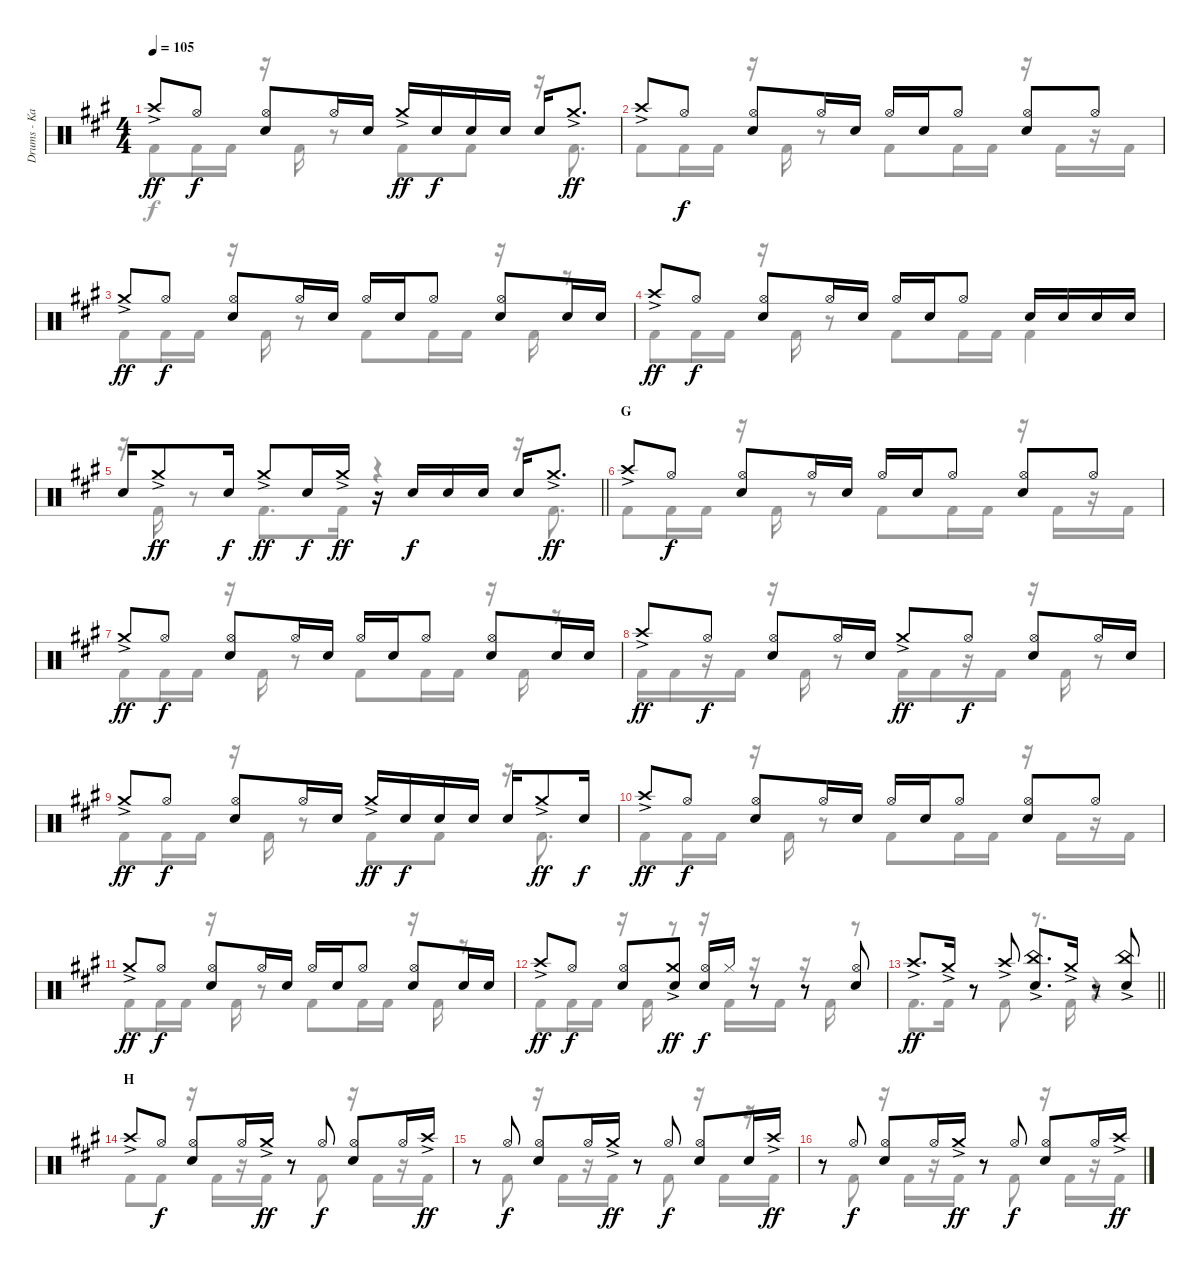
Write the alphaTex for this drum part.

\track ("Drums - Kai" "Drums - Ka") {instrument percussion}
\staff {score}
\articulation defaults
\voice
\ts (4 4)
\tempo 105
\clef neutral
\ks a "Crash high (hit)"{ac}.8{dy ff} "Hi-Hat (open)".8{dy f}
("Hi-Hat (open)" "Electric Snare (hit)").8 "Hi-Hat (open)".16 "Electric Snare (hit)".16 "Crash medium (hit)"{ac}.16{dy ff} "Electric Snare (hit)".16{dy f} "Electric Snare (hit)".16 "Electric Snare (hit)".16 "Electric Snare (hit)".16 "Crash medium (hit)"{ac}.8{d dy ff} |
"Crash high (hit)"{ac}.8 "Hi-Hat (open)".8{dy f} ("Hi-Hat (open)" "Electric Snare (hit)").8 "Hi-Hat (open)".16 "Electric Snare (hit)".16 "Hi-Hat (open)".16 "Electric Snare (hit)".16 "Hi-Hat (open)".8 ("Hi-Hat (open)" "Electric Snare (hit)").8 "Hi-Hat (open)".8 |
"Crash medium (hit)"{ac}.8{dy ff} "Hi-Hat (open)".8{dy f} ("Hi-Hat (open)" "Electric Snare (hit)").8 "Hi-Hat (open)".16 "Electric Snare (hit)".16 "Hi-Hat (open)".16 "Electric Snare (hit)".16 "Hi-Hat (open)".8 ("Hi-Hat (open)" "Electric Snare (hit)").8 "Electric Snare (hit)".16 "Electric Snare (hit)".16 |
"Crash high (hit)"{ac}.8{dy ff} "Hi-Hat (open)".8{dy f} ("Hi-Hat (open)" "Electric Snare (hit)").8 "Hi-Hat (open)".16 "Electric Snare (hit)".16 "Hi-Hat (open)".16 "Electric Snare (hit)".16 "Hi-Hat (open)".8 "Electric Snare (hit)".16 "Electric Snare (hit)".16 "Electric Snare (hit)".16 "Electric Snare (hit)".16 |
\barLineRight lightlight "Electric Snare (hit)".16 "Crash medium (hit)"{ac}.8{dy ff} "Electric Snare (hit)".16{dy f} "Crash medium (hit)"{ac}.8{dy ff} "Electric Snare (hit)".16{dy f} "Crash medium (hit)"{ac}.16{dy ff}
r.16 "Electric Snare (hit)".16{dy f} "Electric Snare (hit)".16 "Electric Snare (hit)".16 "Electric Snare (hit)".16 "Crash medium (hit)"{ac}.8{d dy ff} |
\section ("" "G")
"Crash high (hit)"{ac}.8 "Hi-Hat (open)".8{dy f} ("Hi-Hat (open)" "Electric Snare (hit)").8 "Hi-Hat (open)".16 "Electric Snare (hit)".16 "Hi-Hat (open)".16 "Electric Snare (hit)".16 "Hi-Hat (open)".8 ("Hi-Hat (open)" "Electric Snare (hit)").8 "Hi-Hat (open)".8 |
"Crash medium (hit)"{ac}.8{dy ff} "Hi-Hat (open)".8{dy f} ("Hi-Hat (open)" "Electric Snare (hit)").8 "Hi-Hat (open)".16 "Electric Snare (hit)".16 "Hi-Hat (open)".16 "Electric Snare (hit)".16 "Hi-Hat (open)".8 ("Hi-Hat (open)" "Electric Snare (hit)").8 "Electric Snare (hit)".16 "Electric Snare (hit)".16 |
"Crash high (hit)"{ac}.8{dy ff} "Hi-Hat (open)".8{dy f} ("Hi-Hat (open)" "Electric Snare (hit)").8 "Hi-Hat (open)".16 "Electric Snare (hit)".16 "Crash medium (hit)"{ac}.8{dy ff} "Hi-Hat (open)".8{dy f} ("Hi-Hat (open)" "Electric Snare (hit)").8 "Hi-Hat (open)".16 "Electric Snare (hit)".16 |
"Crash medium (hit)"{ac}.8{dy ff} "Hi-Hat (open)".8{dy f} ("Hi-Hat (open)" "Electric Snare (hit)").8 "Hi-Hat (open)".16 "Electric Snare (hit)".16 "Crash medium (hit)"{ac}.16{dy ff} "Electric Snare (hit)".16{dy f} "Electric Snare (hit)".16 "Electric Snare (hit)".16 "Electric Snare (hit)".16 "Crash medium (hit)"{ac}.8{dy ff} "Electric Snare (hit)".16{dy f} |
"Crash high (hit)"{ac}.8{dy ff} "Hi-Hat (open)".8{dy f} ("Hi-Hat (open)" "Electric Snare (hit)").8 "Hi-Hat (open)".16 "Electric Snare (hit)".16 "Hi-Hat (open)".16 "Electric Snare (hit)".16 "Hi-Hat (open)".8 ("Hi-Hat (open)" "Electric Snare (hit)").8 "Hi-Hat (open)".8 |
"Crash medium (hit)"{ac}.8{dy ff} "Hi-Hat (open)".8{dy f} ("Hi-Hat (open)" "Electric Snare (hit)").8 "Hi-Hat (open)".16 "Electric Snare (hit)".16 "Hi-Hat (open)".16 "Electric Snare (hit)".16 "Hi-Hat (open)".8 ("Hi-Hat (open)" "Electric Snare (hit)").8 "Electric Snare (hit)".16 "Electric Snare (hit)".16 |
"Crash high (hit)"{ac}.8{dy ff} "Hi-Hat (open)".8{dy f} ("Hi-Hat (open)" "Electric Snare (hit)").8 ("Crash medium (hit)"{ac} "Electric Snare (hit)").8{dy ff} ("Hi-Hat (open)" "Electric Snare (hit)").16{dy f} "Hi-Hat (closed)".16 r.8 r.8 ("Hi-Hat (open)" "Electric Snare (hit)").8 |
\barLineRight lightlight "Crash high (hit)"{ac}.8{d dy ff} "Crash medium (hit)"{ac}.16
r.8 "Crash high (hit)"{ac}.8 ("China (hit)"{ac} "Electric Snare (hit)").8{d} "Crash medium (hit)"{ac}.16 r.8 ("China (hit)"{ac} "Electric Snare (hit)").8 |
\section ("" "H")
"Crash high (hit)"{ac}.8 "Hi-Hat (open)".8{dy f} ("Hi-Hat (open)" "Electric Snare (hit)").8 "Hi-Hat (open)".16 "Crash medium (hit)"{ac}.16{dy ff} r.8 "Hi-Hat (open)".8{dy f} ("Hi-Hat (open)" "Electric Snare (hit)").8 "Hi-Hat (open)".16 "Crash high (hit)"{ac}.16{dy ff} |
r.8 "Hi-Hat (open)".8{dy f} ("Hi-Hat (open)" "Electric Snare (hit)").8 "Hi-Hat (open)".16 "Crash medium (hit)"{ac}.16{dy ff} r.8 "Hi-Hat (open)".8{dy f} ("Hi-Hat (open)" "Electric Snare (hit)").8 "Electric Snare (hit)".16 "Crash high (hit)"{ac}.16{dy ff} |
r.8 "Hi-Hat (open)".8{dy f} ("Hi-Hat (open)" "Electric Snare (hit)").8 "Hi-Hat (open)".16 "Crash medium (hit)"{ac}.16{dy ff} r.8 "Hi-Hat (open)".8{dy f} ("Hi-Hat (open)" "Electric Snare (hit)").8 "Hi-Hat (open)".16 "Crash high (hit)"{ac}.16{dy ff}
\voice
\clef neutral
\ottava regular
\simile none
\ks a "Kick (hit) 2".8{dy f} "Kick (hit) 2".16 "Kick (hit) 2".16
r.16 "Kick (hit) 2".16 r.8 "Kick (hit) 2".8 "Kick (hit) 2".8 r.16 "Kick (hit) 2".8{d} |
"Kick (hit) 2".8 "Kick (hit) 2".16 "Kick (hit) 2".16 r.16 "Kick (hit) 2".16 r.8 "Kick (hit) 2".8 "Kick (hit) 2".16 "Kick (hit) 2".16 r.16 "Kick (hit) 2".16 r.16 "Kick (hit) 2".16 |
"Kick (hit) 2".8 "Kick (hit) 2".16 "Kick (hit) 2".16 r.16 "Kick (hit) 2".16 r.8 "Kick (hit) 2".8 "Kick (hit) 2".16 "Kick (hit) 2".16 r.16 "Kick (hit) 2".16 r.8 |
"Kick (hit) 2".8 "Kick (hit) 2".16 "Kick (hit) 2".16 r.16 "Kick (hit) 2".16 r.8 "Kick (hit) 2".8 "Kick (hit) 2".16 "Kick (hit) 2".16 "Kick (hit) 2".4 |
\barLineRight lightlight
r.16 "Kick (hit) 2".16 r.8 "Kick (hit) 2".8{d} "Kick (hit) 2".16 r.4 r.16 "Kick (hit) 2".8{d} |
"Kick (hit) 2".8 "Kick (hit) 2".16 "Kick (hit) 2".16 r.16 "Kick (hit) 2".16 r.8 "Kick (hit) 2".8 "Kick (hit) 2".16 "Kick (hit) 2".16 r.16 "Kick (hit) 2".16 r.16 "Kick (hit) 2".16 |
"Kick (hit) 2".8 "Kick (hit) 2".16 "Kick (hit) 2".16 r.16 "Kick (hit) 2".16 r.8 "Kick (hit) 2".8 "Kick (hit) 2".16 "Kick (hit) 2".16 r.16 "Kick (hit) 2".16 r.8 |
"Kick (hit) 2".16 "Kick (hit) 2".16 r.16 "Kick (hit) 2".16 r.16 "Kick (hit) 2".16 r.8 "Kick (hit) 2".16 "Kick (hit) 2".16 r.16 "Kick (hit) 2".16 r.16 "Kick (hit) 2".16 r.8 |
"Kick (hit) 2".8 "Kick (hit) 2".16 "Kick (hit) 2".16 r.16 "Kick (hit) 2".16 r.8 "Kick (hit) 2".8 "Kick (hit) 2".8 r.16 "Kick (hit) 2".8{d} |
"Kick (hit) 2".8 "Kick (hit) 2".16 "Kick (hit) 2".16 r.16 "Kick (hit) 2".16 r.8 "Kick (hit) 2".8 "Kick (hit) 2".16 "Kick (hit) 2".16 r.16 "Kick (hit) 2".16 r.16 "Kick (hit) 2".16 |
"Kick (hit) 2".8 "Kick (hit) 2".16 "Kick (hit) 2".16 r.16 "Kick (hit) 2".16 r.8 "Kick (hit) 2".8 "Kick (hit) 2".16 "Kick (hit) 2".16 r.16 "Kick (hit) 2".16 r.8 |
"Kick (hit) 2".8 "Kick (hit) 2".16 "Kick (hit) 2".16 r.16 "Kick (hit) 2".16 r.8 r.16 "Kick (hit) 2".16 r.16 "Kick (hit) 2".16 r.16 "Kick (hit) 2".16 r.8 |
\barLineRight lightlight "Kick (hit) 2".8{d} "Kick (hit) 2".16
r.8 "Kick (hit) 2".8 r.8{d} "Kick (hit) 2".16 r.4 |
"Kick (hit) 2".8 "Kick (hit) 2".8 r.16 "Kick (hit) 2".16 r.16 "Kick (hit) 2".16 r.8 "Kick (hit) 2".8 r.16 "Kick (hit) 2".16 r.16 "Kick (hit) 2".16 |
r.8 "Kick (hit) 2".8 r.16 "Kick (hit) 2".16 r.16 "Kick (hit) 2".16 r.8 "Kick (hit) 2".8 r.16 "Kick (hit) 2".16 r.16 "Kick (hit) 2".16 |
r.8 "Kick (hit) 2".8 r.16 "Kick (hit) 2".16 r.16 "Kick (hit) 2".16 r.8 "Kick (hit) 2".8 r.16 "Kick (hit) 2".16 r.16 "Kick (hit) 2".16
